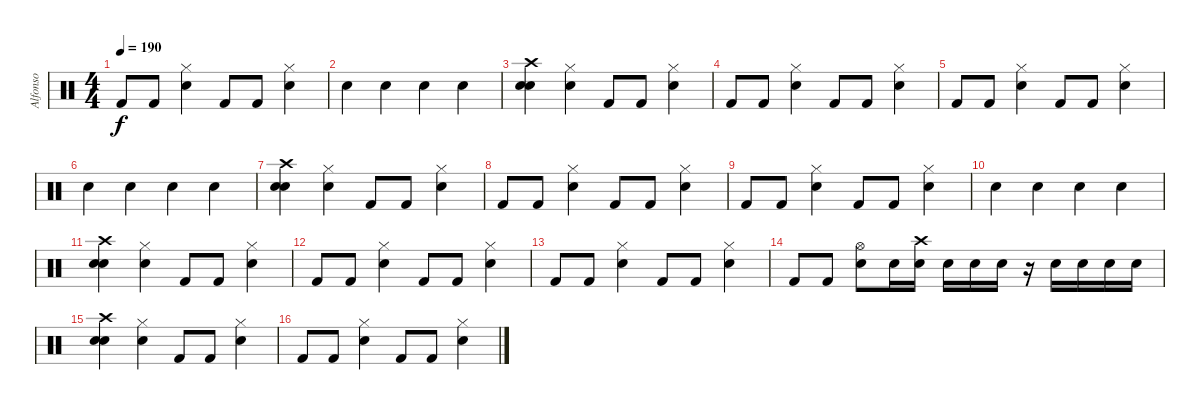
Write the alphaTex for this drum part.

\track ("Alfonso" "Alfonso") {instrument percussion}
\staff {score}
\articulation defaults
\ts (4 4)
\tempo 190
\clef neutral
\ks c "Kick (hit) 2".8{dy f} "Kick (hit) 2".8
("Hi-Hat (closed)" "Electric Snare (hit)").4 "Kick (hit) 2".8 "Kick (hit) 2".8 ("Hi-Hat (closed)" "Electric Snare (hit)").4 |
"Electric Snare (hit)".4 "Electric Snare (hit)".4 "Electric Snare (hit)".4 "Electric Snare (hit)".4 |
("Crash high (hit)" "Electric Snare (hit)" "Snare (hit) 2").4 ("Hi-Hat (closed)" "Electric Snare (hit)").4 "Kick (hit) 2".8 "Kick (hit) 2".8 ("Hi-Hat (closed)" "Electric Snare (hit)").4 |
"Kick (hit) 2".8 "Kick (hit) 2".8 ("Hi-Hat (closed)" "Electric Snare (hit)").4 "Kick (hit) 2".8 "Kick (hit) 2".8 ("Hi-Hat (closed)" "Electric Snare (hit)").4 |
"Kick (hit) 2".8 "Kick (hit) 2".8 ("Hi-Hat (closed)" "Electric Snare (hit)").4 "Kick (hit) 2".8 "Kick (hit) 2".8 ("Hi-Hat (closed)" "Electric Snare (hit)").4 |
"Electric Snare (hit)".4 "Electric Snare (hit)".4 "Electric Snare (hit)".4 "Electric Snare (hit)".4 |
("Crash high (hit)" "Electric Snare (hit)" "Snare (hit) 2").4 ("Hi-Hat (closed)" "Electric Snare (hit)").4 "Kick (hit) 2".8 "Kick (hit) 2".8 ("Hi-Hat (closed)" "Electric Snare (hit)").4 |
"Kick (hit) 2".8 "Kick (hit) 2".8 ("Hi-Hat (closed)" "Electric Snare (hit)").4 "Kick (hit) 2".8 "Kick (hit) 2".8 ("Hi-Hat (closed)" "Electric Snare (hit)").4 |
"Kick (hit) 2".8 "Kick (hit) 2".8 ("Hi-Hat (closed)" "Electric Snare (hit)").4 "Kick (hit) 2".8 "Kick (hit) 2".8 ("Hi-Hat (closed)" "Electric Snare (hit)").4 |
"Electric Snare (hit)".4 "Electric Snare (hit)".4 "Electric Snare (hit)".4 "Electric Snare (hit)".4 |
("Crash high (hit)" "Electric Snare (hit)" "Snare (hit) 2").4 ("Hi-Hat (closed)" "Electric Snare (hit)").4 "Kick (hit) 2".8 "Kick (hit) 2".8 ("Hi-Hat (closed)" "Electric Snare (hit)").4 |
"Kick (hit) 2".8 "Kick (hit) 2".8 ("Hi-Hat (closed)" "Electric Snare (hit)").4 "Kick (hit) 2".8 "Kick (hit) 2".8 ("Hi-Hat (closed)" "Electric Snare (hit)").4 |
"Kick (hit) 2".8 "Kick (hit) 2".8 ("Hi-Hat (closed)" "Electric Snare (hit)").4 "Kick (hit) 2".8 "Kick (hit) 2".8 ("Hi-Hat (closed)" "Electric Snare (hit)").4 |
"Kick (hit) 2".8 "Kick (hit) 2".8 ("Hi-Hat (open)" "Electric Snare (hit)").8 "Electric Snare (hit)".16 ("Crash high (hit)" "Electric Snare (hit)").16 "Electric Snare (hit)".16 "Electric Snare (hit)".16 "Electric Snare (hit)".16 r.16 "Electric Snare (hit)".16 "Electric Snare (hit)".16 "Electric Snare (hit)".16 "Electric Snare (hit)".16 |
("Crash high (hit)" "Electric Snare (hit)" "Snare (hit) 2").4 ("Hi-Hat (closed)" "Electric Snare (hit)").4 "Kick (hit) 2".8 "Kick (hit) 2".8 ("Hi-Hat (closed)" "Electric Snare (hit)").4 |
"Kick (hit) 2".8 "Kick (hit) 2".8 ("Hi-Hat (closed)" "Electric Snare (hit)").4 "Kick (hit) 2".8 "Kick (hit) 2".8 ("Hi-Hat (closed)" "Electric Snare (hit)").4
